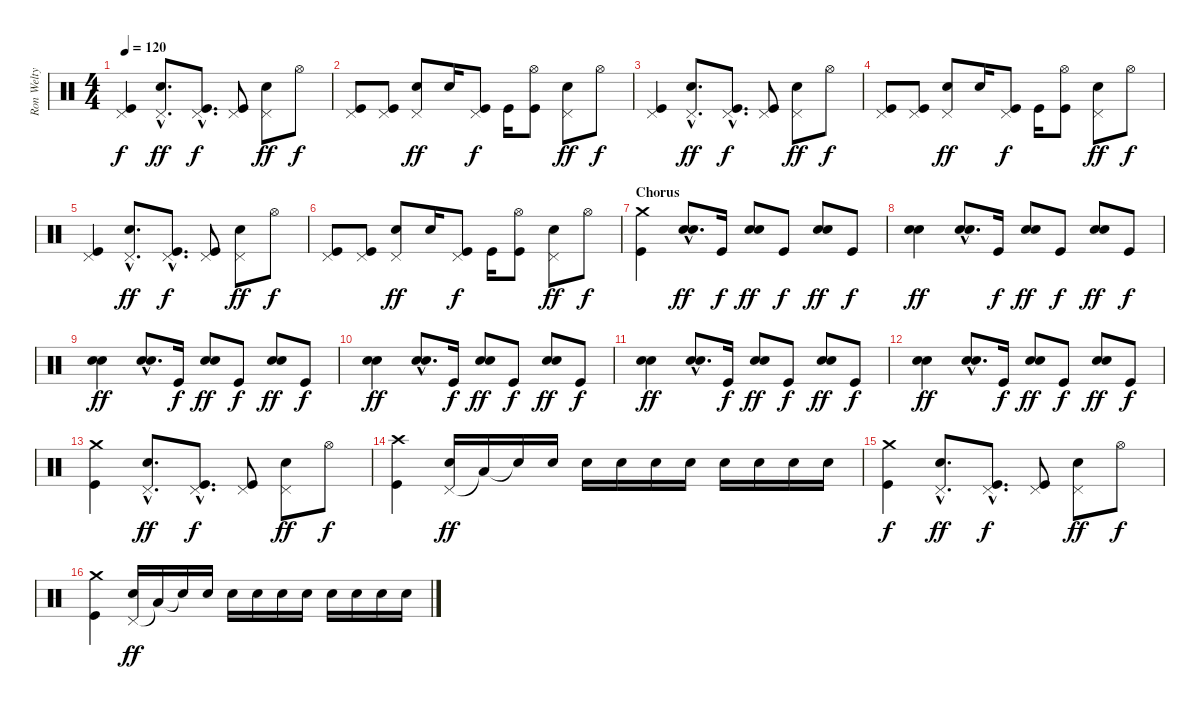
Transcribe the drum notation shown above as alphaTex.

\track ("Ron Welty" "Ron Welty") {instrument percussion}
\staff {score}
\articulation defaults
\ts (4 4)
\tempo 120
\clef neutral
\ks c
("Pedal Hi-Hat (hit)" "Kick (hit)").4{dy f} ("Pedal Hi-Hat (hit)"{hac} "Snare (hit) 2"{hac}).8{d dy ff} ("Pedal Hi-Hat (hit)"{hac} "Kick (hit)"{hac}).8{d dy f} ("Pedal Hi-Hat (hit)" "Kick (hit)").8 ("Pedal Hi-Hat (hit)" "Snare (hit) 2").8{dy ff} "Hi-Hat (open)".8{dy f} |
("Pedal Hi-Hat (hit)" "Kick (hit)").8 ("Pedal Hi-Hat (hit)" "Kick (hit)").8 ("Pedal Hi-Hat (hit)" "Snare (hit) 2").8{dy ff} "Snare (hit) 2".16 ("Pedal Hi-Hat (hit)" "Kick (hit)").8{dy f} "Kick (hit)".16 ("Hi-Hat (open)" "Kick (hit)").8 ("Pedal Hi-Hat (hit)" "Snare (hit) 2").8{dy ff} "Hi-Hat (open)".8{dy f} |
("Pedal Hi-Hat (hit)" "Kick (hit)").4 ("Pedal Hi-Hat (hit)"{hac} "Snare (hit) 2"{hac}).8{d dy ff} ("Pedal Hi-Hat (hit)"{hac} "Kick (hit)"{hac}).8{d dy f} ("Pedal Hi-Hat (hit)" "Kick (hit)").8 ("Pedal Hi-Hat (hit)" "Snare (hit) 2").8{dy ff} "Hi-Hat (open)".8{dy f} |
("Pedal Hi-Hat (hit)" "Kick (hit)").8 ("Pedal Hi-Hat (hit)" "Kick (hit)").8 ("Pedal Hi-Hat (hit)" "Snare (hit) 2").8{dy ff} "Snare (hit) 2".16 ("Pedal Hi-Hat (hit)" "Kick (hit)").8{dy f} "Kick (hit)".16 ("Hi-Hat (open)" "Kick (hit)").8 ("Pedal Hi-Hat (hit)" "Snare (hit) 2").8{dy ff} "Hi-Hat (open)".8{dy f} |
("Pedal Hi-Hat (hit)" "Kick (hit)").4 ("Pedal Hi-Hat (hit)"{hac} "Snare (hit) 2"{hac}).8{d dy ff} ("Pedal Hi-Hat (hit)"{hac} "Kick (hit)"{hac}).8{d dy f} ("Pedal Hi-Hat (hit)" "Kick (hit)").8 ("Pedal Hi-Hat (hit)" "Snare (hit) 2").8{dy ff} "Hi-Hat (open)".8{dy f} |
("Pedal Hi-Hat (hit)" "Kick (hit)").8 ("Pedal Hi-Hat (hit)" "Kick (hit)").8 ("Pedal Hi-Hat (hit)" "Snare (hit) 2").8{dy ff} "Snare (hit) 2".16 ("Pedal Hi-Hat (hit)" "Kick (hit)").8{dy f} "Kick (hit)".16 ("Hi-Hat (open)" "Kick (hit)").8 ("Pedal Hi-Hat (hit)" "Snare (hit) 2").8{dy ff} "Hi-Hat (open)".8{dy f} |
\section ("" "Chorus")
("Crash medium (hit)" "Kick (hit)").4 ("Snare (hit) 2"{hac} "Snare (hit) 2"{hac}).8{d bd 120 dy ff} "Kick (hit)".16{dy f} ("Snare (hit) 2" "Snare (hit) 2").8{bd 120 dy ff} "Kick (hit)".8{dy f} ("Snare (hit) 2" "Snare (hit) 2").8{bd 120 dy ff} "Kick (hit)".8{dy f} |
("Snare (hit) 2" "Snare (hit) 2").4{bd 120 dy ff} ("Snare (hit) 2"{hac} "Snare (hit) 2"{hac}).8{d bd 120} "Kick (hit)".16{dy f} ("Snare (hit) 2" "Snare (hit) 2").8{bd 120 dy ff} "Kick (hit)".8{dy f} ("Snare (hit) 2" "Snare (hit) 2").8{bd 120 dy ff} "Kick (hit)".8{dy f} |
("Snare (hit) 2" "Snare (hit) 2").4{bd 120 dy ff} ("Snare (hit) 2"{hac} "Snare (hit) 2"{hac}).8{d bd 120} "Kick (hit)".16{dy f} ("Snare (hit) 2" "Snare (hit) 2").8{bd 120 dy ff} "Kick (hit)".8{dy f} ("Snare (hit) 2" "Snare (hit) 2").8{bd 120 dy ff} "Kick (hit)".8{dy f} |
("Snare (hit) 2" "Snare (hit) 2").4{bd 120 dy ff} ("Snare (hit) 2"{hac} "Snare (hit) 2"{hac}).8{d bd 120} "Kick (hit)".16{dy f} ("Snare (hit) 2" "Snare (hit) 2").8{bd 120 dy ff} "Kick (hit)".8{dy f} ("Snare (hit) 2" "Snare (hit) 2").8{bd 120 dy ff} "Kick (hit)".8{dy f} |
("Snare (hit) 2" "Snare (hit) 2").4{bd 120 dy ff} ("Snare (hit) 2"{hac} "Snare (hit) 2"{hac}).8{d bd 120} "Kick (hit)".16{dy f} ("Snare (hit) 2" "Snare (hit) 2").8{bd 120 dy ff} "Kick (hit)".8{dy f} ("Snare (hit) 2" "Snare (hit) 2").8{bd 120 dy ff} "Kick (hit)".8{dy f} |
("Snare (hit) 2" "Snare (hit) 2").4{bd 120 dy ff} ("Snare (hit) 2"{hac} "Snare (hit) 2"{hac}).8{d bd 120} "Kick (hit)".16{dy f} ("Snare (hit) 2" "Snare (hit) 2").8{bd 120 dy ff} "Kick (hit)".8{dy f} ("Snare (hit) 2" "Snare (hit) 2").8{bd 120 dy ff} "Kick (hit)".8{dy f} |
("Crash medium (hit)" "Kick (hit)").4 ("Pedal Hi-Hat (hit)"{hac} "Snare (hit) 2"{hac}).8{d dy ff} ("Pedal Hi-Hat (hit)"{hac} "Kick (hit)"{hac}).8{d dy f} ("Pedal Hi-Hat (hit)" "Kick (hit)").8 ("Pedal Hi-Hat (hit)" "Snare (hit) 2").8{dy ff} "Hi-Hat (open)".8{dy f} |
("Crash high (hit)" "Kick (hit)").4 ("Pedal Hi-Hat (hit)" "Snare (hit) 2").16{dy ff} "Low Tom (hit)"{t}.16 "Snare (hit) 2"{t}.16 "Snare (hit) 2".16 "Snare (hit) 2".16 "Snare (hit) 2".16 "Snare (hit) 2".16 "Snare (hit) 2".16 "Snare (hit) 2".16 "Snare (hit) 2".16 "Snare (hit) 2".16 "Snare (hit) 2".16 |
("Crash medium (hit)" "Kick (hit)").4{dy f} ("Pedal Hi-Hat (hit)"{hac} "Snare (hit) 2"{hac}).8{d dy ff} ("Pedal Hi-Hat (hit)"{hac} "Kick (hit)"{hac}).8{d dy f} ("Pedal Hi-Hat (hit)" "Kick (hit)").8 ("Pedal Hi-Hat (hit)" "Snare (hit) 2").8{dy ff} "Hi-Hat (open)".8{dy f} |
("Crash medium (hit)" "Kick (hit)").4 ("Pedal Hi-Hat (hit)" "Snare (hit) 2").16{dy ff} "Low Tom (hit)"{t}.16 "Snare (hit) 2"{t}.16 "Snare (hit) 2".16 "Snare (hit) 2".16 "Snare (hit) 2".16 "Snare (hit) 2".16 "Snare (hit) 2".16 "Snare (hit) 2".16 "Snare (hit) 2".16 "Snare (hit) 2".16 "Snare (hit) 2".16
